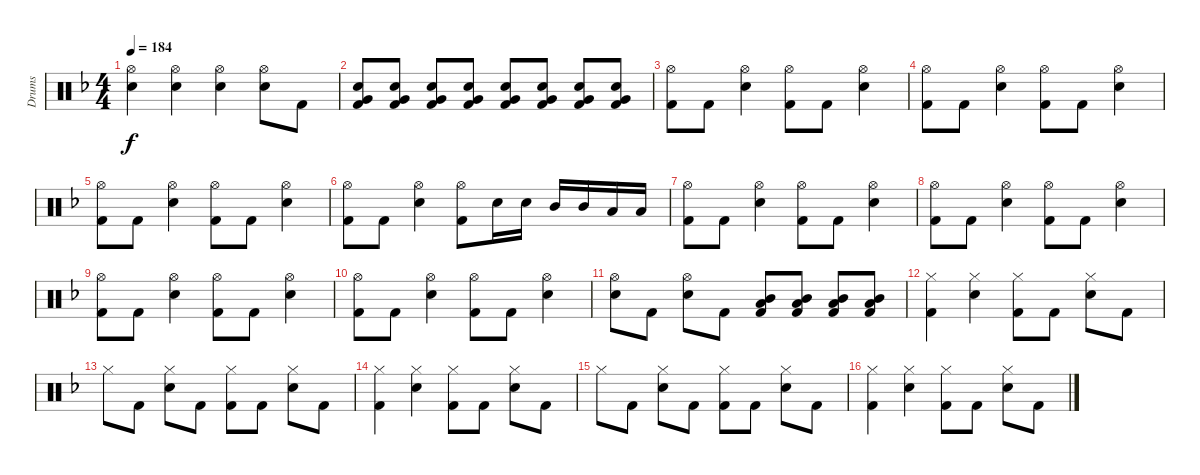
\track ("Drums" "Drums") {instrument percussion}
\staff {score}
\articulation defaults
\ts (4 4)
\tempo 184
\clef neutral
\ks f
("Hi-Hat (open)" "Electric Snare (hit)").4{dy f} ("Hi-Hat (open)" "Electric Snare (hit)").4 ("Hi-Hat (open)" "Electric Snare (hit)").4 ("Hi-Hat (open)" "Electric Snare (hit)").8 "Kick (hit) 2".8 |
("Electric Snare (hit)" "Very Low Tom (hit)" "Kick (hit) 2").8 ("Electric Snare (hit)" "Very Low Tom (hit)" "Kick (hit) 2").8 ("Electric Snare (hit)" "Very Low Tom (hit)" "Kick (hit) 2").8 ("Electric Snare (hit)" "Very Low Tom (hit)" "Kick (hit) 2").8 ("Electric Snare (hit)" "Very Low Tom (hit)" "Kick (hit) 2").8 ("Electric Snare (hit)" "Very Low Tom (hit)" "Kick (hit) 2").8 ("Electric Snare (hit)" "Very Low Tom (hit)" "Kick (hit) 2").8 ("Electric Snare (hit)" "Very Low Tom (hit)" "Kick (hit) 2").8 |
("Hi-Hat (open)" "Kick (hit) 2").8 "Kick (hit) 2".8 ("Hi-Hat (open)" "Electric Snare (hit)").4 ("Hi-Hat (open)" "Kick (hit) 2").8 "Kick (hit) 2".8 ("Hi-Hat (open)" "Electric Snare (hit)").4 |
("Hi-Hat (open)" "Kick (hit) 2").8 "Kick (hit) 2".8 ("Hi-Hat (open)" "Electric Snare (hit)").4 ("Hi-Hat (open)" "Kick (hit) 2").8 "Kick (hit) 2".8 ("Hi-Hat (open)" "Electric Snare (hit)").4 |
("Hi-Hat (open)" "Kick (hit) 2").8 "Kick (hit) 2".8 ("Hi-Hat (open)" "Electric Snare (hit)").4 ("Hi-Hat (open)" "Kick (hit) 2").8 "Kick (hit) 2".8 ("Hi-Hat (open)" "Electric Snare (hit)").4 |
("Hi-Hat (open)" "Kick (hit) 2").8 "Kick (hit) 2".8 ("Hi-Hat (open)" "Electric Snare (hit)").4 ("Hi-Hat (open)" "Kick (hit) 2").8 "Electric Snare (hit)".16 "Electric Snare (hit)".16 "Mid Tom (hit)".16 "Mid Tom (hit)".16 "Low Tom (hit)".16 "Low Tom (hit)".16 |
("Hi-Hat (open)" "Kick (hit) 2").8 "Kick (hit) 2".8 ("Hi-Hat (open)" "Electric Snare (hit)").4 ("Hi-Hat (open)" "Kick (hit) 2").8 "Kick (hit) 2".8 ("Hi-Hat (open)" "Electric Snare (hit)").4 |
("Hi-Hat (open)" "Kick (hit) 2").8 "Kick (hit) 2".8 ("Hi-Hat (open)" "Electric Snare (hit)").4 ("Hi-Hat (open)" "Kick (hit) 2").8 "Kick (hit) 2".8 ("Hi-Hat (open)" "Electric Snare (hit)").4 |
("Hi-Hat (open)" "Kick (hit) 2").8 "Kick (hit) 2".8 ("Hi-Hat (open)" "Electric Snare (hit)").4 ("Hi-Hat (open)" "Kick (hit) 2").8 "Kick (hit) 2".8 ("Hi-Hat (open)" "Electric Snare (hit)").4 |
("Hi-Hat (open)" "Kick (hit) 2").8 "Kick (hit) 2".8 ("Hi-Hat (open)" "Electric Snare (hit)").4 ("Hi-Hat (open)" "Kick (hit) 2").8 "Kick (hit) 2".8 ("Hi-Hat (open)" "Electric Snare (hit)").4 |
("Hi-Hat (open)" "Electric Snare (hit)").8 "Kick (hit) 2".8 ("Hi-Hat (open)" "Electric Snare (hit)").8 "Kick (hit) 2".8 ("Mid Tom (hit)" "Low Tom (hit)" "Kick (hit) 2").8 ("Mid Tom (hit)" "Low Tom (hit)" "Kick (hit) 2").8 ("Mid Tom (hit)" "Low Tom (hit)" "Kick (hit) 2").8 ("Mid Tom (hit)" "Low Tom (hit)" "Kick (hit) 2").8 |
("Hi-Hat (closed)" "Kick (hit) 2").4 ("Hi-Hat (closed)" "Electric Snare (hit)").4 ("Hi-Hat (closed)" "Kick (hit) 2").8 "Kick (hit) 2".8 ("Hi-Hat (closed)" "Electric Snare (hit)").8 "Kick (hit) 2".8 |
"Hi-Hat (closed)".8 "Kick (hit) 2".8 ("Hi-Hat (closed)" "Electric Snare (hit)").8 "Kick (hit) 2".8 ("Hi-Hat (closed)" "Kick (hit) 2").8 "Kick (hit) 2".8 ("Hi-Hat (closed)" "Electric Snare (hit)").8 "Kick (hit) 2".8 |
("Hi-Hat (closed)" "Kick (hit) 2").4 ("Hi-Hat (closed)" "Electric Snare (hit)").4 ("Hi-Hat (closed)" "Kick (hit) 2").8 "Kick (hit) 2".8 ("Hi-Hat (closed)" "Electric Snare (hit)").8 "Kick (hit) 2".8 |
"Hi-Hat (closed)".8 "Kick (hit) 2".8 ("Hi-Hat (closed)" "Electric Snare (hit)").8 "Kick (hit) 2".8 ("Hi-Hat (closed)" "Kick (hit) 2").8 "Kick (hit) 2".8 ("Hi-Hat (closed)" "Electric Snare (hit)").8 "Kick (hit) 2".8 |
("Hi-Hat (closed)" "Kick (hit) 2").4 ("Hi-Hat (closed)" "Electric Snare (hit)").4 ("Hi-Hat (closed)" "Kick (hit) 2").8 "Kick (hit) 2".8 ("Hi-Hat (closed)" "Electric Snare (hit)").8 "Kick (hit) 2".8
